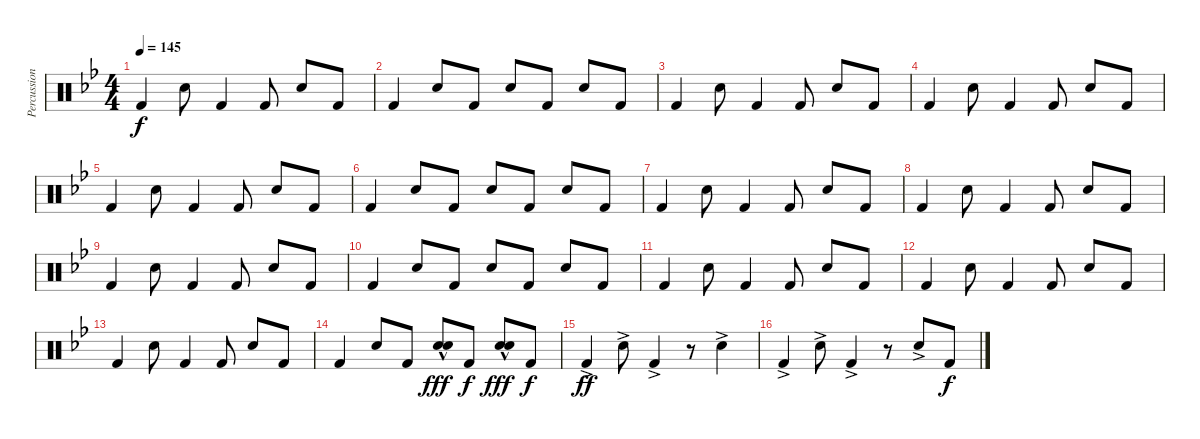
\track ("Percussion" "Percussion") {instrument percussion}
\staff {score}
\articulation defaults
\ts (4 4)
\tempo 145
\clef neutral
\ks gminor "Kick (hit) 2".4{dy f} "Electric Snare (hit)".8 "Kick (hit) 2".4 "Kick (hit) 2".8 "Electric Snare (hit)".8 "Kick (hit) 2".8
|
"Kick (hit) 2".4 "Electric Snare (hit)".8 "Kick (hit) 2".8 "Electric Snare (hit)".8 "Kick (hit) 2".8 "Electric Snare (hit)".8 "Kick (hit) 2".8 |
"Kick (hit) 2".4 "Electric Snare (hit)".8 "Kick (hit) 2".4 "Kick (hit) 2".8 "Electric Snare (hit)".8 "Kick (hit) 2".8 |
"Kick (hit) 2".4 "Electric Snare (hit)".8 "Kick (hit) 2".4 "Kick (hit) 2".8 "Electric Snare (hit)".8 "Kick (hit) 2".8 |
"Kick (hit) 2".4 "Electric Snare (hit)".8 "Kick (hit) 2".4 "Kick (hit) 2".8 "Electric Snare (hit)".8 "Kick (hit) 2".8 |
"Kick (hit) 2".4 "Electric Snare (hit)".8 "Kick (hit) 2".8 "Electric Snare (hit)".8 "Kick (hit) 2".8 "Electric Snare (hit)".8 "Kick (hit) 2".8 |
"Kick (hit) 2".4 "Electric Snare (hit)".8 "Kick (hit) 2".4 "Kick (hit) 2".8 "Electric Snare (hit)".8 "Kick (hit) 2".8 |
"Kick (hit) 2".4 "Electric Snare (hit)".8 "Kick (hit) 2".4 "Kick (hit) 2".8 "Electric Snare (hit)".8 "Kick (hit) 2".8 |
"Kick (hit) 2".4 "Electric Snare (hit)".8 "Kick (hit) 2".4 "Kick (hit) 2".8 "Electric Snare (hit)".8 "Kick (hit) 2".8 |
"Kick (hit) 2".4 "Electric Snare (hit)".8 "Kick (hit) 2".8 "Electric Snare (hit)".8 "Kick (hit) 2".8 "Electric Snare (hit)".8 "Kick (hit) 2".8 |
"Kick (hit) 2".4 "Electric Snare (hit)".8 "Kick (hit) 2".4 "Kick (hit) 2".8 "Electric Snare (hit)".8 "Kick (hit) 2".8 |
"Kick (hit) 2".4 "Electric Snare (hit)".8 "Kick (hit) 2".4 "Kick (hit) 2".8 "Electric Snare (hit)".8 "Kick (hit) 2".8 |
"Kick (hit) 2".4 "Electric Snare (hit)".8 "Kick (hit) 2".4 "Kick (hit) 2".8 "Electric Snare (hit)".8 "Kick (hit) 2".8 |
"Kick (hit) 2".4 "Electric Snare (hit)".8 "Kick (hit) 2".8 ("Hand Clap (hit)"{hac} "Electric Snare (hit)").8{dy fff} "Kick (hit) 2".8{dy f} ("Hand Clap (hit)"{hac} "Electric Snare (hit)").8{dy fff} "Kick (hit) 2".8{dy f} |
"Kick (hit) 2"{ac}.4{dy ff} "Hand Clap (hit)"{ac}.8 "Kick (hit) 2"{ac}.4 r.8 "Hand Clap (hit)"{ac}.4 |
"Kick (hit) 2"{ac}.4 "Hand Clap (hit)"{ac}.8 "Kick (hit) 2"{ac}.4 r.8 "Hand Clap (hit)"{ac}.8 "Kick (hit) 2".8{dy f}
